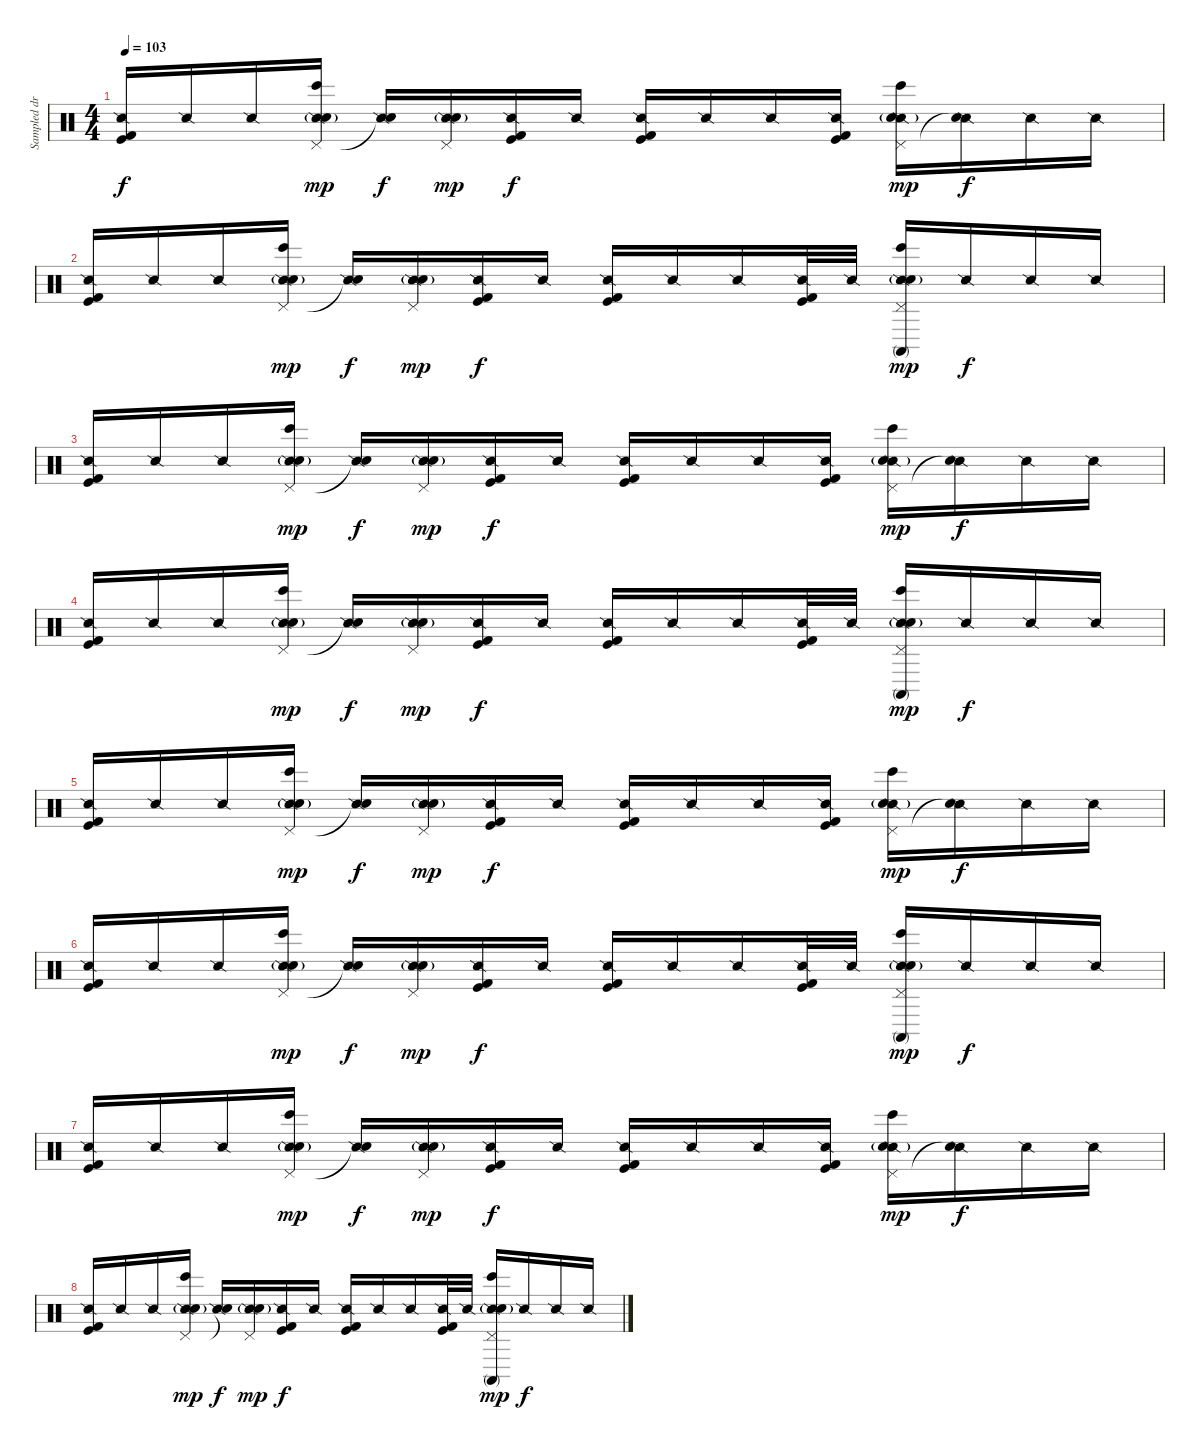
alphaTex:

\track ("Sampled drums (Rob with Joe)" "Sampled dr") {instrument percussion}
\staff {score}
\articulation defaults
\ts (4 4)
\tempo 103
\clef neutral
\ks c
("Snare (side stick) 2" "Kick (hit)" "Kick (hit) 2").16{dy f} "Snare (side stick) 2".16 "Snare (side stick) 2".16 ("Snare (side stick) 2" "Pedal Hi-Hat (hit)" "Bongo High (hit)" "Snare (hit) 2"{g}).16{dy mp} ("Snare (side stick) 2" "Snare (hit)"{t}).16{dy f} ("Snare (side stick) 2" "Pedal Hi-Hat (hit)" "Snare (hit) 2"{g}).16{dy mp} ("Snare (side stick) 2" "Kick (hit)" "Kick (hit) 2").16{dy f} "Snare (side stick) 2".16 ("Snare (side stick) 2" "Kick (hit)" "Kick (hit) 2").16 "Snare (side stick) 2".16 "Snare (side stick) 2".16 ("Snare (side stick) 2" "Kick (hit)" "Kick (hit) 2").16 ("Snare (side stick) 2" "Pedal Hi-Hat (hit)" "Bongo High (hit)" "Snare (hit) 2"{g}).16{dy mp} ("Snare (side stick) 2" "Snare (hit)"{t}).16{dy f} "Snare (side stick) 2".16 "Snare (side stick) 2".16 |
("Snare (side stick) 2" "Kick (hit)" "Kick (hit) 2").16 "Snare (side stick) 2".16 "Snare (side stick) 2".16 ("Snare (side stick) 2" "Pedal Hi-Hat (hit)" "Bongo High (hit)" "Snare (hit) 2"{g}).16{dy mp} ("Snare (side stick) 2" "Snare (hit)"{t}).16{dy f} ("Snare (side stick) 2" "Pedal Hi-Hat (hit)" "Snare (hit) 2"{g}).16{dy mp} ("Snare (side stick) 2" "Kick (hit)" "Kick (hit) 2").16{dy f} "Snare (side stick) 2".16 ("Snare (side stick) 2" "Kick (hit)" "Kick (hit) 2").16 "Snare (side stick) 2".16 "Snare (side stick) 2".16 ("Snare (side stick) 2" "Kick (hit)" "Kick (hit) 2").32 "Snare (side stick) 2".32 ("Snare (side stick) 2" "Pedal Hi-Hat (hit)" "Conga high (mute)" "Bongo High (hit)" "Snare (hit) 2"{g}).16{dy mp} "Snare (side stick) 2".16{dy f} "Snare (side stick) 2".16 "Snare (side stick) 2".16 |
("Snare (side stick) 2" "Kick (hit)" "Kick (hit) 2").16 "Snare (side stick) 2".16 "Snare (side stick) 2".16 ("Snare (side stick) 2" "Pedal Hi-Hat (hit)" "Bongo High (hit)" "Snare (hit) 2"{g}).16{dy mp} ("Snare (side stick) 2" "Snare (hit)"{t}).16{dy f} ("Snare (side stick) 2" "Pedal Hi-Hat (hit)" "Snare (hit) 2"{g}).16{dy mp} ("Snare (side stick) 2" "Kick (hit)" "Kick (hit) 2").16{dy f} "Snare (side stick) 2".16 ("Snare (side stick) 2" "Kick (hit)" "Kick (hit) 2").16 "Snare (side stick) 2".16 "Snare (side stick) 2".16 ("Snare (side stick) 2" "Kick (hit)" "Kick (hit) 2").16 ("Snare (side stick) 2" "Pedal Hi-Hat (hit)" "Bongo High (hit)" "Snare (hit) 2"{g}).16{dy mp} ("Snare (side stick) 2" "Snare (hit)"{t}).16{dy f} "Snare (side stick) 2".16 "Snare (side stick) 2".16 |
("Snare (side stick) 2" "Kick (hit)" "Kick (hit) 2").16 "Snare (side stick) 2".16 "Snare (side stick) 2".16 ("Snare (side stick) 2" "Pedal Hi-Hat (hit)" "Bongo High (hit)" "Snare (hit) 2"{g}).16{dy mp} ("Snare (side stick) 2" "Snare (hit)"{t}).16{dy f} ("Snare (side stick) 2" "Pedal Hi-Hat (hit)" "Snare (hit) 2"{g}).16{dy mp} ("Snare (side stick) 2" "Kick (hit)" "Kick (hit) 2").16{dy f} "Snare (side stick) 2".16 ("Snare (side stick) 2" "Kick (hit)" "Kick (hit) 2").16 "Snare (side stick) 2".16 "Snare (side stick) 2".16 ("Snare (side stick) 2" "Kick (hit)" "Kick (hit) 2").32 "Snare (side stick) 2".32 ("Snare (side stick) 2" "Pedal Hi-Hat (hit)" "Conga high (mute)" "Bongo High (hit)" "Snare (hit) 2"{g}).16{dy mp} "Snare (side stick) 2".16{dy f} "Snare (side stick) 2".16 "Snare (side stick) 2".16 |
("Snare (side stick) 2" "Kick (hit)" "Kick (hit) 2").16 "Snare (side stick) 2".16 "Snare (side stick) 2".16 ("Snare (side stick) 2" "Pedal Hi-Hat (hit)" "Bongo High (hit)" "Snare (hit) 2"{g}).16{dy mp} ("Snare (side stick) 2" "Snare (hit)"{t}).16{dy f} ("Snare (side stick) 2" "Pedal Hi-Hat (hit)" "Snare (hit) 2"{g}).16{dy mp} ("Snare (side stick) 2" "Kick (hit)" "Kick (hit) 2").16{dy f} "Snare (side stick) 2".16 ("Snare (side stick) 2" "Kick (hit)" "Kick (hit) 2").16 "Snare (side stick) 2".16 "Snare (side stick) 2".16 ("Snare (side stick) 2" "Kick (hit)" "Kick (hit) 2").16 ("Snare (side stick) 2" "Pedal Hi-Hat (hit)" "Bongo High (hit)" "Snare (hit) 2"{g}).16{dy mp} ("Snare (side stick) 2" "Snare (hit)"{t}).16{dy f} "Snare (side stick) 2".16 "Snare (side stick) 2".16 |
("Snare (side stick) 2" "Kick (hit)" "Kick (hit) 2").16 "Snare (side stick) 2".16 "Snare (side stick) 2".16 ("Snare (side stick) 2" "Pedal Hi-Hat (hit)" "Bongo High (hit)" "Snare (hit) 2"{g}).16{dy mp} ("Snare (side stick) 2" "Snare (hit)"{t}).16{dy f} ("Snare (side stick) 2" "Pedal Hi-Hat (hit)" "Snare (hit) 2"{g}).16{dy mp} ("Snare (side stick) 2" "Kick (hit)" "Kick (hit) 2").16{dy f} "Snare (side stick) 2".16 ("Snare (side stick) 2" "Kick (hit)" "Kick (hit) 2").16 "Snare (side stick) 2".16 "Snare (side stick) 2".16 ("Snare (side stick) 2" "Kick (hit)" "Kick (hit) 2").32 "Snare (side stick) 2".32 ("Snare (side stick) 2" "Pedal Hi-Hat (hit)" "Conga high (mute)" "Bongo High (hit)" "Snare (hit) 2"{g}).16{dy mp} "Snare (side stick) 2".16{dy f} "Snare (side stick) 2".16 "Snare (side stick) 2".16 |
("Snare (side stick) 2" "Kick (hit)" "Kick (hit) 2").16 "Snare (side stick) 2".16 "Snare (side stick) 2".16 ("Snare (side stick) 2" "Pedal Hi-Hat (hit)" "Bongo High (hit)" "Snare (hit) 2"{g}).16{dy mp} ("Snare (side stick) 2" "Snare (hit)"{t}).16{dy f} ("Snare (side stick) 2" "Pedal Hi-Hat (hit)" "Snare (hit) 2"{g}).16{dy mp} ("Snare (side stick) 2" "Kick (hit)" "Kick (hit) 2").16{dy f} "Snare (side stick) 2".16 ("Snare (side stick) 2" "Kick (hit)" "Kick (hit) 2").16 "Snare (side stick) 2".16 "Snare (side stick) 2".16 ("Snare (side stick) 2" "Kick (hit)" "Kick (hit) 2").16 ("Snare (side stick) 2" "Pedal Hi-Hat (hit)" "Bongo High (hit)" "Snare (hit) 2"{g}).16{dy mp} ("Snare (side stick) 2" "Snare (hit)"{t}).16{dy f} "Snare (side stick) 2".16 "Snare (side stick) 2".16 |
("Snare (side stick) 2" "Kick (hit)" "Kick (hit) 2").16 "Snare (side stick) 2".16 "Snare (side stick) 2".16 ("Snare (side stick) 2" "Pedal Hi-Hat (hit)" "Bongo High (hit)" "Snare (hit) 2"{g}).16{dy mp} ("Snare (side stick) 2" "Snare (hit)"{t}).16{dy f} ("Snare (side stick) 2" "Pedal Hi-Hat (hit)" "Snare (hit) 2"{g}).16{dy mp} ("Snare (side stick) 2" "Kick (hit)" "Kick (hit) 2").16{dy f} "Snare (side stick) 2".16 ("Snare (side stick) 2" "Kick (hit)" "Kick (hit) 2").16 "Snare (side stick) 2".16 "Snare (side stick) 2".16 ("Snare (side stick) 2" "Kick (hit)" "Kick (hit) 2").32 "Snare (side stick) 2".32 ("Snare (side stick) 2" "Pedal Hi-Hat (hit)" "Conga high (mute)" "Bongo High (hit)" "Snare (hit) 2"{g}).16{dy mp} "Snare (side stick) 2".16{dy f} "Snare (side stick) 2".16 "Snare (side stick) 2".16
